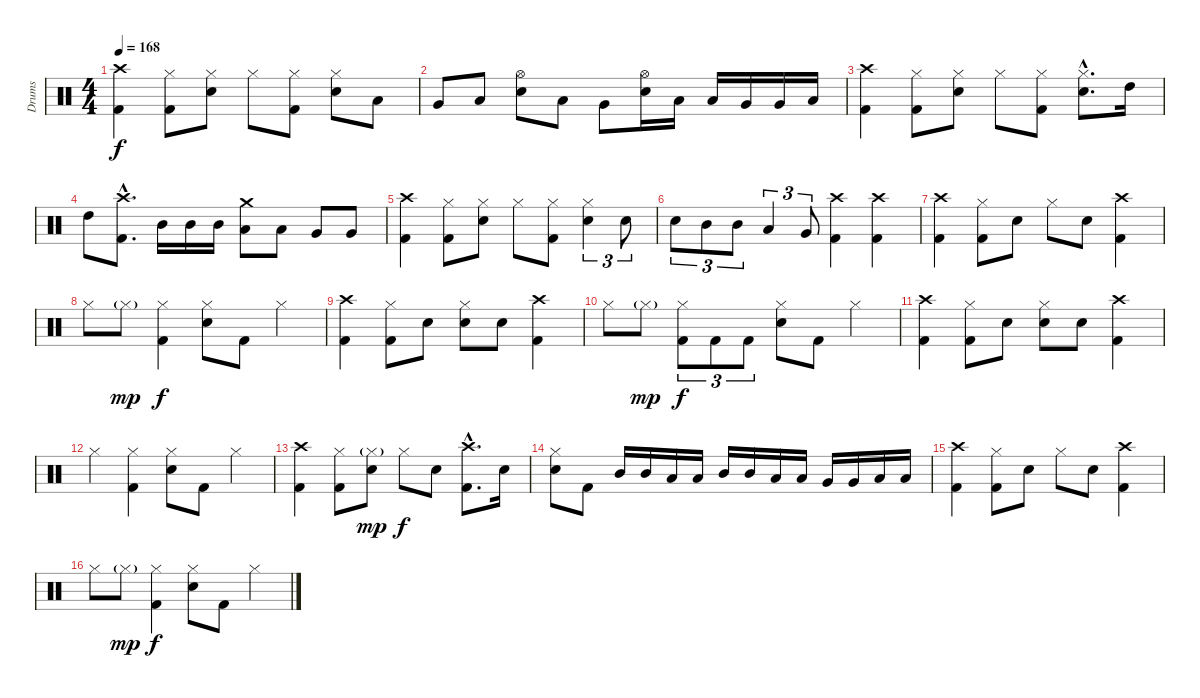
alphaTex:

\track ("Drums" "Drums") {instrument percussion}
\staff {score}
\articulation defaults
\ts (4 4)
\tempo 168
\clef neutral
\ks c
("Crash high (hit)" "Kick (hit) 2").4{dy f} ("Hi-Hat (closed)" "Kick (hit) 2").8 ("Hi-Hat (closed)" "Electric Snare (hit)").8 "Hi-Hat (closed)".8 ("Hi-Hat (closed)" "Kick (hit) 2").8 ("Hi-Hat (closed)" "Electric Snare (hit)").8 "Low Tom (hit)".8 |
"Very Low Tom (hit)".8 "Low Floor Tom (hit)".8 ("Hi-Hat (open)" "Electric Snare (hit)").8 "Low Tom (hit)".8 "Very Low Tom (hit)".8 ("Hi-Hat (open)" "Electric Snare (hit)").16 "Low Tom (hit)".16 "Low Tom (hit)".16 "Very Low Tom (hit)".16 "Very Low Tom (hit)".16 "Low Floor Tom (hit)".16 |
("Crash high (hit)" "Kick (hit) 2").4 ("Hi-Hat (closed)" "Kick (hit) 2").8 ("Hi-Hat (closed)" "Electric Snare (hit)").8 "Hi-Hat (closed)".8 ("Hi-Hat (closed)" "Kick (hit) 2").8 ("Hi-Hat (closed)"{hac} "Electric Snare (hit)"{hac}).8{d} "High Tom (hit)".16 |
"High Tom (hit)".8 ("Crash high (hit)"{hac} "Kick (hit) 2"{hac}).8{d} "Mid Tom (hit)".16 "Mid Tom (hit)".16 "Mid Tom (hit)".16 ("Crash medium (hit)" "Low Tom (hit)").8 "Low Tom (hit)".8 "Very Low Tom (hit)".8 "Very Low Tom (hit)".8 |
("Crash high (hit)" "Kick (hit) 2").4 ("Hi-Hat (closed)" "Kick (hit) 2").8 ("Hi-Hat (closed)" "Electric Snare (hit)").8 "Hi-Hat (closed)".8 ("Hi-Hat (closed)" "Kick (hit) 2").8 ("Hi-Hat (closed)" "Electric Snare (hit)").4{tu (3 2)} "Electric Snare (hit)".8{tu (3 2)} |
"Electric Snare (hit)".8{tu (3 2)} "Mid Tom (hit)".8{tu (3 2)} "Mid Tom (hit)".8{tu (3 2)} "Low Tom (hit)".4{tu (3 2)} "Very Low Tom (hit)".8{tu (3 2)} ("Crash high (hit)" "Kick (hit) 2").4 ("Crash high (hit)" "Kick (hit) 2").4 |
("Crash high (hit)" "Kick (hit) 2").4 ("Hi-Hat (closed)" "Kick (hit) 2").8 "Electric Snare (hit)".8 "Hi-Hat (closed)".8 "Electric Snare (hit)".8 ("Crash high (hit)" "Kick (hit) 2").4 |
"Hi-Hat (closed)".8 "Hi-Hat (closed)"{g}.8{dy mp} ("Hi-Hat (closed)" "Kick (hit) 2").4{dy f} ("Hi-Hat (closed)" "Electric Snare (hit)").8 "Kick (hit) 2".8 "Hi-Hat (closed)".4 |
("Crash high (hit)" "Kick (hit) 2").4 ("Hi-Hat (closed)" "Kick (hit) 2").8 "Electric Snare (hit)".8 ("Hi-Hat (closed)" "Electric Snare (hit)").8 "Electric Snare (hit)".8 ("Crash high (hit)" "Kick (hit) 2").4 |
"Hi-Hat (closed)".8 "Hi-Hat (closed)"{g}.8{dy mp} ("Hi-Hat (closed)" "Kick (hit) 2").8{tu (3 2) dy f} "Kick (hit) 2".8{tu (3 2)} "Kick (hit) 2".8{tu (3 2)} ("Hi-Hat (closed)" "Electric Snare (hit)").8 "Kick (hit) 2".8 "Hi-Hat (closed)".4 |
("Crash high (hit)" "Kick (hit) 2").4 ("Hi-Hat (closed)" "Kick (hit) 2").8 "Electric Snare (hit)".8 ("Hi-Hat (closed)" "Electric Snare (hit)").8 "Electric Snare (hit)".8 ("Crash high (hit)" "Kick (hit) 2").4 |
"Hi-Hat (closed)".4 ("Hi-Hat (closed)" "Kick (hit) 2").4 ("Hi-Hat (closed)" "Electric Snare (hit)").8 "Kick (hit) 2".8 "Hi-Hat (closed)".4 |
("Crash high (hit)" "Kick (hit) 2").4 ("Hi-Hat (closed)" "Kick (hit) 2").8 ("Hi-Hat (closed)"{g} "Electric Snare (hit)").8{dy mp} "Hi-Hat (closed)".8{dy f} "Electric Snare (hit)".8 ("Crash high (hit)"{hac} "Kick (hit) 2"{hac}).8{d} "Electric Snare (hit)".16 |
("Hi-Hat (closed)" "Electric Snare (hit)").8 "Kick (hit) 2".8 "Mid Tom (hit)".16 "Mid Tom (hit)".16 "Low Tom (hit)".16 "Low Tom (hit)".16 "Mid Tom (hit)".16 "Mid Tom (hit)".16 "Low Tom (hit)".16 "Low Tom (hit)".16 "Very Low Tom (hit)".16 "Very Low Tom (hit)".16 "Low Floor Tom (hit)".16 "Low Floor Tom (hit)".16 |
("Crash high (hit)" "Kick (hit) 2").4 ("Hi-Hat (closed)" "Kick (hit) 2").8 "Electric Snare (hit)".8 "Hi-Hat (closed)".8 "Electric Snare (hit)".8 ("Crash high (hit)" "Kick (hit) 2").4 |
"Hi-Hat (closed)".8 "Hi-Hat (closed)"{g}.8{dy mp} ("Hi-Hat (closed)" "Kick (hit) 2").4{dy f} ("Hi-Hat (closed)" "Electric Snare (hit)").8 "Kick (hit) 2".8 "Hi-Hat (closed)".4
